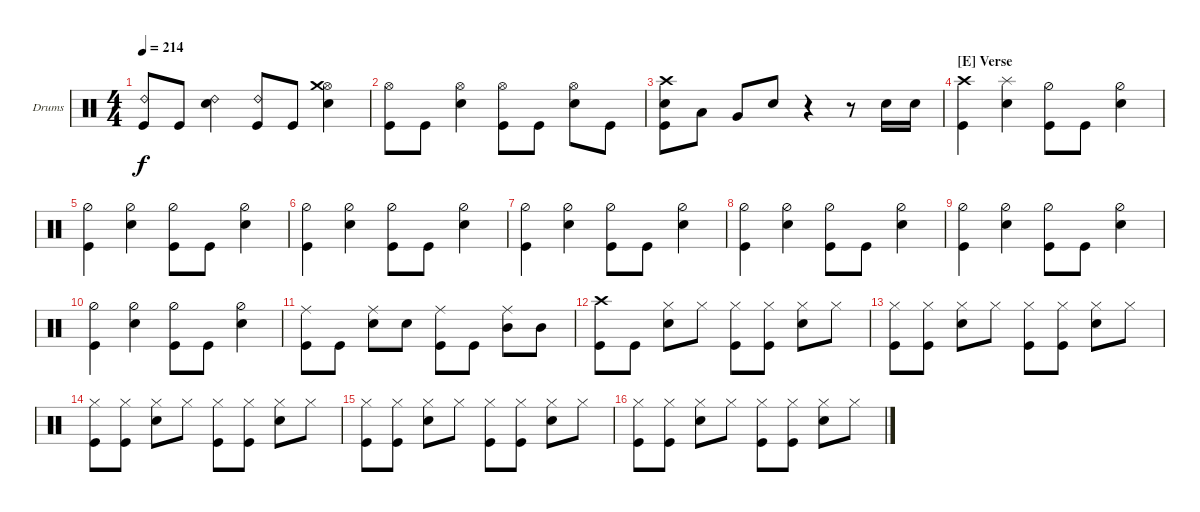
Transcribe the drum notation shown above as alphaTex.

\defaultSystemsLayout 4
\bracketExtendMode groupsimilarinstruments
\firstSystemTrackNameOrientation horizontal
\otherSystemsTrackNameOrientation horizontal
\track ("Brandon" "Drums") {instrument percussion}
\staff {score}
\articulation defaults
\ts (4 4)
\tempo 214
\clef neutral
\ks c
("Kick (hit)" "Ride (bell) 2").8{dy f} "Kick (hit)".8 ("Snare (hit) 2" "Ride (bell) 2").4 ("Kick (hit)" "Ride (bell) 2").8 "Kick (hit)".8 ("Snare (hit) 2" "Hi-Hat (open)" "Crash medium (hit)").4 |
("Kick (hit)" "Hi-Hat (open)").8 "Kick (hit)".8 ("Snare (hit) 2" "Hi-Hat (open)").4 ("Kick (hit)" "Hi-Hat (open)").8 "Kick (hit)".8 ("Snare (hit) 2" "Hi-Hat (open)").8 "Kick (hit)".8 |
("Snare (hit) 2" "Crash high (hit)" "Kick (hit)").8 "Low Tom (hit)".8 "Very Low Tom (hit)".8 "Snare (hit) 2".8 r.4 r.8 "Snare (hit) 2".16 "Snare (hit) 2".16 |
\section ("E" "Verse")
("Kick (hit)" "Crash high (hit)").4 ("Snare (hit) 2" "Splash (hit)").4 ("Kick (hit)" "Hi-Hat (half)").8 "Kick (hit)".8 ("Snare (hit) 2" "Hi-Hat (half)").4 |
("Kick (hit)" "Hi-Hat (half)").4 ("Snare (hit) 2" "Hi-Hat (half)").4 ("Kick (hit)" "Hi-Hat (half)").8 "Kick (hit)".8 ("Snare (hit) 2" "Hi-Hat (half)").4 |
("Kick (hit)" "Hi-Hat (half)").4 ("Snare (hit) 2" "Hi-Hat (half)").4 ("Kick (hit)" "Hi-Hat (half)").8 "Kick (hit)".8 ("Snare (hit) 2" "Hi-Hat (half)").4 |
("Kick (hit)" "Hi-Hat (half)").4 ("Snare (hit) 2" "Hi-Hat (half)").4 ("Kick (hit)" "Hi-Hat (half)").8 "Kick (hit)".8 ("Snare (hit) 2" "Hi-Hat (half)").4 |
("Kick (hit)" "Hi-Hat (half)").4 ("Snare (hit) 2" "Hi-Hat (half)").4 ("Kick (hit)" "Hi-Hat (half)").8 "Kick (hit)".8 ("Snare (hit) 2" "Hi-Hat (half)").4 |
("Kick (hit)" "Hi-Hat (half)").4 ("Snare (hit) 2" "Hi-Hat (half)").4 ("Kick (hit)" "Hi-Hat (half)").8 "Kick (hit)".8 ("Snare (hit) 2" "Hi-Hat (half)").4 |
("Kick (hit)" "Hi-Hat (half)").4 ("Snare (hit) 2" "Hi-Hat (half)").4 ("Kick (hit)" "Hi-Hat (half)").8 "Kick (hit)".8 ("Snare (hit) 2" "Hi-Hat (half)").4 |
("Kick (hit)" "Ride (middle)").8 "Kick (hit)".8 ("Snare (hit) 2" "Ride (middle)").8 "Snare (hit) 2".8 ("Kick (hit)" "Ride (middle)").8 "Kick (hit)".8 ("Mid Tom (hit)" "Ride (middle)").8 "Mid Tom (hit)".8 |
("Kick (hit)" "Crash high (hit)").8 "Kick (hit)".8 ("Snare (hit) 2" "Hi-Hat (closed)").8 "Hi-Hat (closed)".8 ("Hi-Hat (closed)" "Kick (hit)").8 ("Hi-Hat (closed)" "Kick (hit)").8 ("Hi-Hat (closed)" "Snare (hit) 2").8 "Hi-Hat (closed)".8 |
("Hi-Hat (closed)" "Kick (hit)").8 ("Hi-Hat (closed)" "Kick (hit)").8 ("Hi-Hat (closed)" "Snare (hit) 2").8 "Hi-Hat (closed)".8 ("Hi-Hat (closed)" "Kick (hit)").8 ("Hi-Hat (closed)" "Kick (hit)").8 ("Hi-Hat (closed)" "Snare (hit) 2").8 "Hi-Hat (closed)".8 |
("Hi-Hat (closed)" "Kick (hit)").8 ("Hi-Hat (closed)" "Kick (hit)").8 ("Hi-Hat (closed)" "Snare (hit) 2").8 "Hi-Hat (closed)".8 ("Hi-Hat (closed)" "Kick (hit)").8 ("Hi-Hat (closed)" "Kick (hit)").8 ("Hi-Hat (closed)" "Snare (hit) 2").8 "Hi-Hat (closed)".8 |
("Hi-Hat (closed)" "Kick (hit)").8 ("Hi-Hat (closed)" "Kick (hit)").8 ("Hi-Hat (closed)" "Snare (hit) 2").8 "Hi-Hat (closed)".8 ("Hi-Hat (closed)" "Kick (hit)").8 ("Hi-Hat (closed)" "Kick (hit)").8 ("Hi-Hat (closed)" "Snare (hit) 2").8 "Hi-Hat (closed)".8 |
("Hi-Hat (closed)" "Kick (hit)").8 ("Hi-Hat (closed)" "Kick (hit)").8 ("Hi-Hat (closed)" "Snare (hit) 2").8 "Hi-Hat (closed)".8 ("Hi-Hat (closed)" "Kick (hit)").8 ("Hi-Hat (closed)" "Kick (hit)").8 ("Hi-Hat (closed)" "Snare (hit) 2").8 "Hi-Hat (closed)".8
